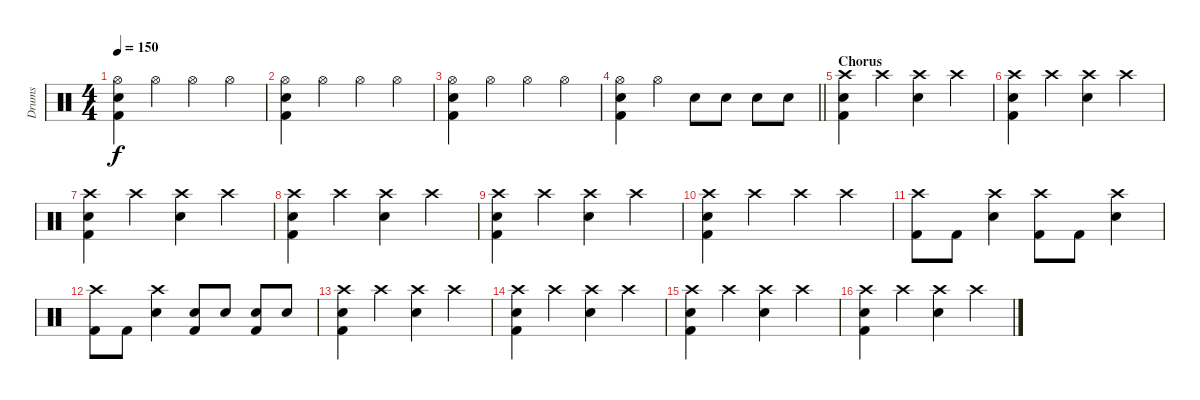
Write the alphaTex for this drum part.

\track ("Drums" "Drums") {instrument percussion}
\staff {score}
\articulation defaults
\ts (4 4)
\tempo 150
\clef neutral
\ks c
("Hi-Hat (open)" "Electric Snare (hit)" "Kick (hit) 2").4{dy f} "Hi-Hat (open)".4 "Hi-Hat (open)".4 "Hi-Hat (open)".4 |
("Hi-Hat (open)" "Electric Snare (hit)" "Kick (hit) 2").4 "Hi-Hat (open)".4 "Hi-Hat (open)".4 "Hi-Hat (open)".4 |
("Hi-Hat (open)" "Electric Snare (hit)" "Kick (hit) 2").4 "Hi-Hat (open)".4 "Hi-Hat (open)".4 "Hi-Hat (open)".4 |
\barLineRight lightlight
("Hi-Hat (open)" "Electric Snare (hit)" "Kick (hit) 2").4 "Hi-Hat (open)".4 "Electric Snare (hit)".8 "Electric Snare (hit)".8 "Electric Snare (hit)".8 "Electric Snare (hit)".8 |
\section ("" "Chorus")
("Crash high (hit)" "Electric Snare (hit)" "Kick (hit) 2").4 "Crash high (hit)".4 ("Crash high (hit)" "Electric Snare (hit)").4 "Crash high (hit)".4 |
("Crash high (hit)" "Electric Snare (hit)" "Kick (hit) 2").4 "Crash high (hit)".4 ("Crash high (hit)" "Electric Snare (hit)").4 "Crash high (hit)".4 |
("Crash high (hit)" "Electric Snare (hit)" "Kick (hit) 2").4 "Crash high (hit)".4 ("Crash high (hit)" "Electric Snare (hit)").4 "Crash high (hit)".4 |
("Crash high (hit)" "Electric Snare (hit)" "Kick (hit) 2").4 "Crash high (hit)".4 ("Crash high (hit)" "Electric Snare (hit)").4 "Crash high (hit)".4 |
("Crash high (hit)" "Electric Snare (hit)" "Kick (hit) 2").4 "Crash high (hit)".4 ("Crash high (hit)" "Electric Snare (hit)").4 "Crash high (hit)".4 |
("Crash high (hit)" "Electric Snare (hit)" "Kick (hit) 2").4 "Crash high (hit)".4 "Crash high (hit)".4 "Crash high (hit)".4 |
("Crash high (hit)" "Kick (hit) 2").8 "Kick (hit) 2".8 ("Crash high (hit)" "Electric Snare (hit)").4 ("Crash high (hit)" "Kick (hit) 2").8 "Kick (hit) 2".8 ("Crash high (hit)" "Electric Snare (hit)").4 |
("Crash high (hit)" "Kick (hit) 2").8 "Kick (hit) 2".8 ("Crash high (hit)" "Electric Snare (hit)").4 ("Electric Snare (hit)" "Kick (hit) 2").8 "Electric Snare (hit)".8 ("Electric Snare (hit)" "Kick (hit) 2").8 "Electric Snare (hit)".8 |
("Crash high (hit)" "Electric Snare (hit)" "Kick (hit) 2").4 "Crash high (hit)".4 ("Crash high (hit)" "Electric Snare (hit)").4 "Crash high (hit)".4 |
("Crash high (hit)" "Electric Snare (hit)" "Kick (hit) 2").4 "Crash high (hit)".4 ("Crash high (hit)" "Electric Snare (hit)").4 "Crash high (hit)".4 |
("Crash high (hit)" "Electric Snare (hit)" "Kick (hit) 2").4 "Crash high (hit)".4 ("Crash high (hit)" "Electric Snare (hit)").4 "Crash high (hit)".4 |
("Crash high (hit)" "Electric Snare (hit)" "Kick (hit) 2").4 "Crash high (hit)".4 ("Crash high (hit)" "Electric Snare (hit)").4 "Crash high (hit)".4
